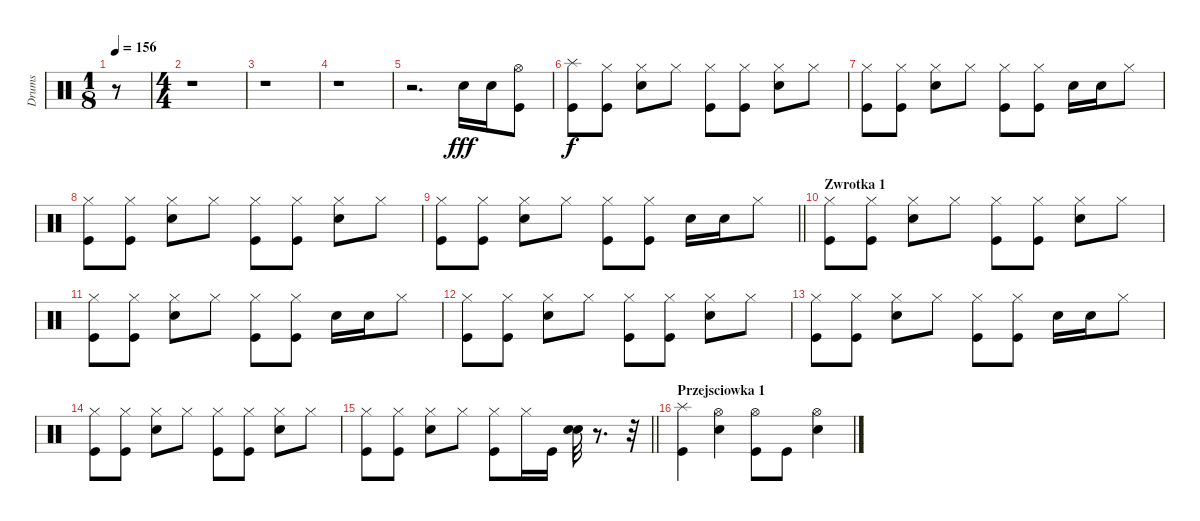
\track ("Drums" "Drums") {instrument percussion}
\staff {score}
\articulation defaults
\ts (1 8)
\tempo 156
\clef neutral
\ks c
r.8{dy fff} |
\ts (4 4)
r.1 |
r.1 |
r.1 |
r.2{d} "Snare (hit) 2".16 "Snare (hit) 2".16 ("Hi-Hat (open)" "Kick (hit)").8 |
("Splash (hit)" "Kick (hit)").8{dy f} ("Hi-Hat (closed)" "Kick (hit)").8 ("Hi-Hat (closed)" "Snare (hit) 2").8 "Hi-Hat (closed)".8 ("Hi-Hat (closed)" "Kick (hit)").8 ("Hi-Hat (closed)" "Kick (hit)").8 ("Hi-Hat (closed)" "Snare (hit) 2").8 "Hi-Hat (closed)".8 |
("Hi-Hat (closed)" "Kick (hit)").8 ("Hi-Hat (closed)" "Kick (hit)").8 ("Hi-Hat (closed)" "Snare (hit) 2").8 "Hi-Hat (closed)".8 ("Hi-Hat (closed)" "Kick (hit)").8 ("Hi-Hat (closed)" "Kick (hit)").8 "Snare (hit) 2".16 "Snare (hit) 2".16 "Hi-Hat (closed)".8 |
("Hi-Hat (closed)" "Kick (hit)").8 ("Hi-Hat (closed)" "Kick (hit)").8 ("Hi-Hat (closed)" "Snare (hit) 2").8 "Hi-Hat (closed)".8 ("Hi-Hat (closed)" "Kick (hit)").8 ("Hi-Hat (closed)" "Kick (hit)").8 ("Hi-Hat (closed)" "Snare (hit) 2").8 "Hi-Hat (closed)".8 |
\barLineRight lightlight
("Hi-Hat (closed)" "Kick (hit)").8 ("Hi-Hat (closed)" "Kick (hit)").8 ("Hi-Hat (closed)" "Snare (hit) 2").8 "Hi-Hat (closed)".8 ("Hi-Hat (closed)" "Kick (hit)").8 ("Hi-Hat (closed)" "Kick (hit)").8 "Snare (hit) 2".16 "Snare (hit) 2".16 "Hi-Hat (closed)".8 |
\section ("" "Zwrotka 1")
("Hi-Hat (closed)" "Kick (hit)").8 ("Hi-Hat (closed)" "Kick (hit)").8 ("Hi-Hat (closed)" "Snare (hit) 2").8 "Hi-Hat (closed)".8 ("Hi-Hat (closed)" "Kick (hit)").8 ("Hi-Hat (closed)" "Kick (hit)").8 ("Hi-Hat (closed)" "Snare (hit) 2").8 "Hi-Hat (closed)".8 |
("Hi-Hat (closed)" "Kick (hit)").8 ("Hi-Hat (closed)" "Kick (hit)").8 ("Hi-Hat (closed)" "Snare (hit) 2").8 "Hi-Hat (closed)".8 ("Hi-Hat (closed)" "Kick (hit)").8 ("Hi-Hat (closed)" "Kick (hit)").8 "Snare (hit) 2".16 "Snare (hit) 2".16 "Hi-Hat (closed)".8 |
("Hi-Hat (closed)" "Kick (hit)").8 ("Hi-Hat (closed)" "Kick (hit)").8 ("Hi-Hat (closed)" "Snare (hit) 2").8 "Hi-Hat (closed)".8 ("Hi-Hat (closed)" "Kick (hit)").8 ("Hi-Hat (closed)" "Kick (hit)").8 ("Hi-Hat (closed)" "Snare (hit) 2").8 "Hi-Hat (closed)".8 |
("Hi-Hat (closed)" "Kick (hit)").8 ("Hi-Hat (closed)" "Kick (hit)").8 ("Hi-Hat (closed)" "Snare (hit) 2").8 "Hi-Hat (closed)".8 ("Hi-Hat (closed)" "Kick (hit)").8 ("Hi-Hat (closed)" "Kick (hit)").8 "Snare (hit) 2".16 "Snare (hit) 2".16 "Hi-Hat (closed)".8 |
("Hi-Hat (closed)" "Kick (hit)").8 ("Hi-Hat (closed)" "Kick (hit)").8 ("Hi-Hat (closed)" "Snare (hit) 2").8 "Hi-Hat (closed)".8 ("Hi-Hat (closed)" "Kick (hit)").8 ("Hi-Hat (closed)" "Kick (hit)").8 ("Hi-Hat (closed)" "Snare (hit) 2").8 "Hi-Hat (closed)".8 |
\barLineRight lightlight
("Hi-Hat (closed)" "Kick (hit)").8 ("Hi-Hat (closed)" "Kick (hit)").8 ("Hi-Hat (closed)" "Snare (hit) 2").8 "Hi-Hat (closed)".8 ("Hi-Hat (closed)" "Kick (hit)").8 "Hi-Hat (closed)".16 "Kick (hit)".16 ("Snare (hit) 2" "Snare (hit) 2").32 r.8{d} r.32 |
\section ("" "Przejsciowka 1")
("Splash (hit)" "Kick (hit)").4 ("Hi-Hat (open)" "Snare (hit) 2").4 ("Hi-Hat (open)" "Kick (hit)").8 "Kick (hit)".8 ("Hi-Hat (open)" "Snare (hit) 2").4
